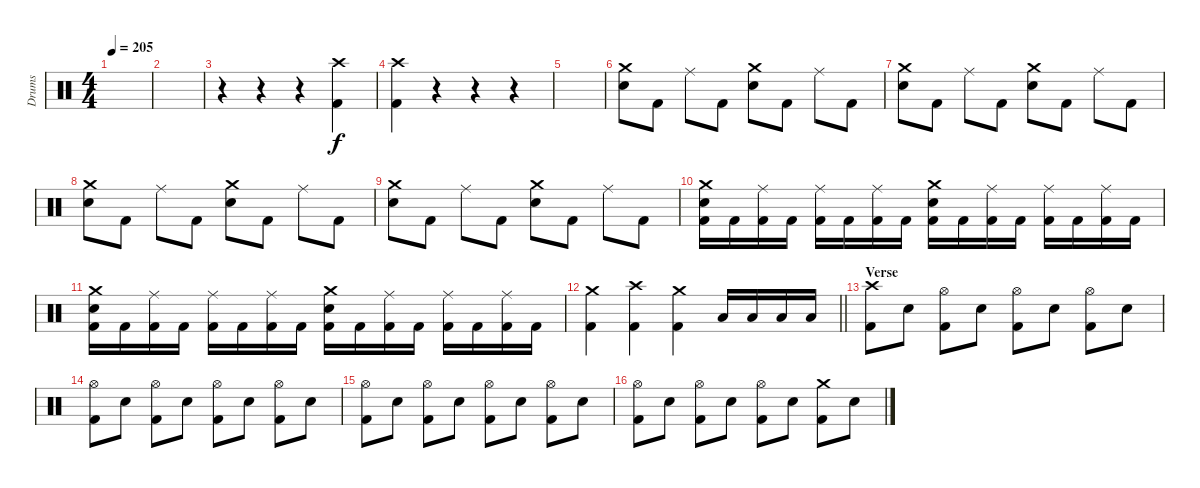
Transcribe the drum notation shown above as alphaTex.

\track ("Drums" "Drums") {instrument percussion}
\staff {score}
\articulation defaults
\ts (4 4)
\tempo 205
\clef neutral
\ks c
|
|
r.4 r.4 r.4 ("Crash high (hit)" "Kick (hit) 2").4 |
("Crash high (hit)" "Kick (hit) 2").4 r.4 r.4 r.4 |
|
("Crash medium (hit)" "Electric Snare (hit)").8 "Kick (hit) 2".8 "Ride (middle)".8 "Kick (hit) 2".8 ("Crash medium (hit)" "Electric Snare (hit)").8 "Kick (hit) 2".8 "Ride (middle)".8 "Kick (hit) 2".8 |
("Crash medium (hit)" "Electric Snare (hit)").8 "Kick (hit) 2".8 "Ride (middle)".8 "Kick (hit) 2".8 ("Crash medium (hit)" "Electric Snare (hit)").8 "Kick (hit) 2".8 "Ride (middle)".8 "Kick (hit) 2".8 |
("Crash medium (hit)" "Electric Snare (hit)").8 "Kick (hit) 2".8 "Ride (middle)".8 "Kick (hit) 2".8 ("Crash medium (hit)" "Electric Snare (hit)").8 "Kick (hit) 2".8 "Ride (middle)".8 "Kick (hit) 2".8 |
("Crash medium (hit)" "Electric Snare (hit)").8 "Kick (hit) 2".8 "Ride (middle)".8 "Kick (hit) 2".8 ("Crash medium (hit)" "Electric Snare (hit)").8 "Kick (hit) 2".8 "Ride (middle)".8 "Kick (hit) 2".8 |
("Crash medium (hit)" "Electric Snare (hit)" "Kick (hit) 2").16 "Kick (hit) 2".16 ("Ride (middle)" "Kick (hit) 2").16 "Kick (hit) 2".16 ("Ride (middle)" "Kick (hit) 2").16 "Kick (hit) 2".16 ("Ride (middle)" "Kick (hit) 2").16 "Kick (hit) 2".16 ("Crash medium (hit)" "Electric Snare (hit)" "Kick (hit) 2").16 "Kick (hit) 2".16 ("Ride (middle)" "Kick (hit) 2").16 "Kick (hit) 2".16 ("Ride (middle)" "Kick (hit) 2").16 "Kick (hit) 2".16 ("Ride (middle)" "Kick (hit) 2").16 "Kick (hit) 2".16 |
("Crash medium (hit)" "Electric Snare (hit)" "Kick (hit) 2").16 "Kick (hit) 2".16 ("Ride (middle)" "Kick (hit) 2").16 "Kick (hit) 2".16 ("Ride (middle)" "Kick (hit) 2").16 "Kick (hit) 2".16 ("Ride (middle)" "Kick (hit) 2").16 "Kick (hit) 2".16 ("Crash medium (hit)" "Electric Snare (hit)" "Kick (hit) 2").16 "Kick (hit) 2".16 ("Ride (middle)" "Kick (hit) 2").16 "Kick (hit) 2".16 ("Ride (middle)" "Kick (hit) 2").16 "Kick (hit) 2".16 ("Ride (middle)" "Kick (hit) 2").16 "Kick (hit) 2".16 |
\barLineRight lightlight
("Crash medium (hit)" "Kick (hit) 2").4 ("Crash high (hit)" "Kick (hit) 2").4 ("Crash medium (hit)" "Kick (hit) 2").4 "Low Tom (hit)".16 "Low Tom (hit)".16 "Low Tom (hit)".16 "Low Tom (hit)".16 |
\section ("" "Verse")
("Crash high (hit)" "Kick (hit) 2").8 "Electric Snare (hit)".8 ("Hi-Hat (open)" "Kick (hit) 2").8 "Electric Snare (hit)".8 ("Hi-Hat (open)" "Kick (hit) 2").8 "Electric Snare (hit)".8 ("Hi-Hat (open)" "Kick (hit) 2").8 "Electric Snare (hit)".8 |
("Hi-Hat (open)" "Kick (hit) 2").8 "Electric Snare (hit)".8 ("Hi-Hat (open)" "Kick (hit) 2").8 "Electric Snare (hit)".8 ("Hi-Hat (open)" "Kick (hit) 2").8 "Electric Snare (hit)".8 ("Hi-Hat (open)" "Kick (hit) 2").8 "Electric Snare (hit)".8 |
("Hi-Hat (open)" "Kick (hit) 2").8 "Electric Snare (hit)".8 ("Hi-Hat (open)" "Kick (hit) 2").8 "Electric Snare (hit)".8 ("Hi-Hat (open)" "Kick (hit) 2").8 "Electric Snare (hit)".8 ("Hi-Hat (open)" "Kick (hit) 2").8 "Electric Snare (hit)".8 |
("Hi-Hat (open)" "Kick (hit) 2").8 "Electric Snare (hit)".8 ("Hi-Hat (open)" "Kick (hit) 2").8 "Electric Snare (hit)".8 ("Hi-Hat (open)" "Kick (hit) 2").8 "Electric Snare (hit)".8 ("Crash medium (hit)" "Kick (hit) 2").8 "Electric Snare (hit)".8
